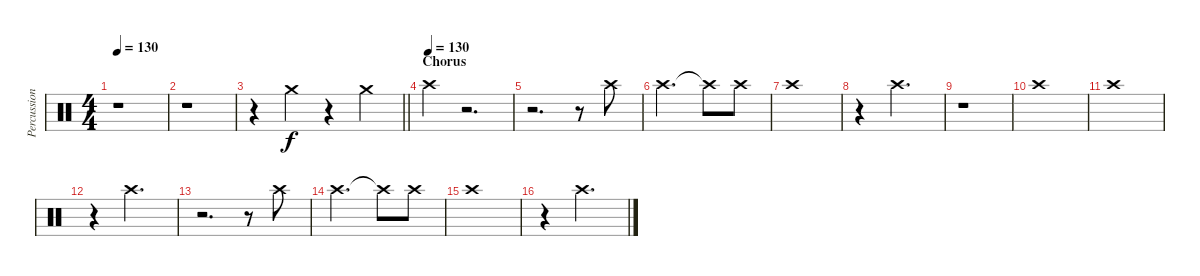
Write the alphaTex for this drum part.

\track ("Percussion 2" "Percussion") {instrument percussion}
\staff {score}
\articulation defaults
\ts (4 4)
\tempo 130
\clef neutral
\ks c
r.1{dy f} |
r.1 |
\barLineRight lightlight
r.4 "Crash medium (hit)".4 r.4 "Crash medium (hit)".4 |
\section ("" "Chorus")
\tempo (130)
"Crash high (hit)".4 r.2{d} |
r.2{d} r.8 "Crash high (hit)".8 |
"Crash high (hit)".2{d} "Crash high (hit)"{t}.8 "Crash high (hit)".8 |
"Crash high (hit)".1 |
r.4 "Crash high (hit)".2{d} |
r.1 |
"Crash high (hit)".1 |
"Crash high (hit)".1 |
r.4 "Crash high (hit)".2{d} |
r.2{d} r.8 "Crash high (hit)".8 |
"Crash high (hit)".2{d} "Crash high (hit)"{t}.8 "Crash high (hit)".8 |
"Crash high (hit)".1 |
r.4 "Crash high (hit)".2{d}
